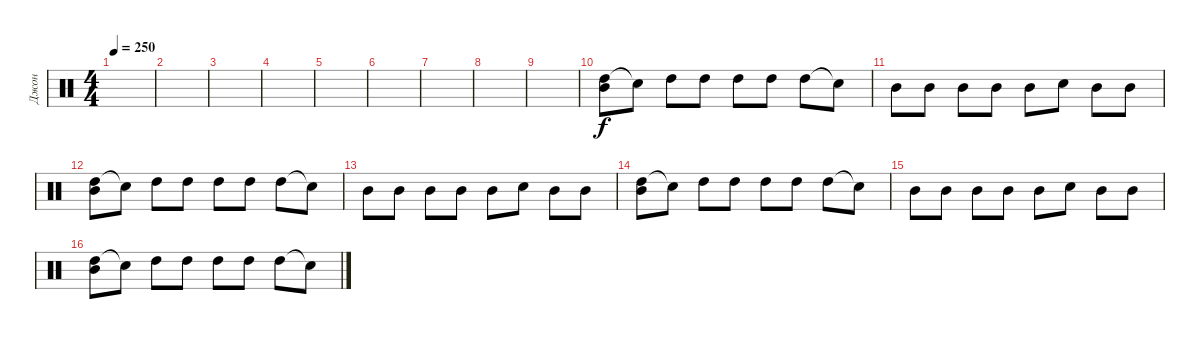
\track ("Джон" "Джон") {instrument percussion}
\staff {score}
\articulation defaults
\ts (4 4)
\tempo 250
\clef neutral
\ks c
|
|
|
|
|
|
|
|
|
("High Tom (hit)" "Mid Tom (hit)").8 "Snare (hit)"{t}.8 "High Tom (hit)".8 "High Tom (hit)".8 "High Tom (hit)".8 "High Tom (hit)".8 "High Tom (hit)".8 "Snare (hit)"{t}.8 |
"Mid Tom (hit)".8 "Mid Tom (hit)".8 "Mid Tom (hit)".8 "Mid Tom (hit)".8 "Mid Tom (hit)".8 "Snare (hit)".8 "Mid Tom (hit)".8 "Mid Tom (hit)".8 |
("High Tom (hit)" "Mid Tom (hit)").8 "Snare (hit)"{t}.8 "High Tom (hit)".8 "High Tom (hit)".8 "High Tom (hit)".8 "High Tom (hit)".8 "High Tom (hit)".8 "Snare (hit)"{t}.8 |
"Mid Tom (hit)".8 "Mid Tom (hit)".8 "Mid Tom (hit)".8 "Mid Tom (hit)".8 "Mid Tom (hit)".8 "Snare (hit)".8 "Mid Tom (hit)".8 "Mid Tom (hit)".8 |
("High Tom (hit)" "Mid Tom (hit)").8 "Snare (hit)"{t}.8 "High Tom (hit)".8 "High Tom (hit)".8 "High Tom (hit)".8 "High Tom (hit)".8 "High Tom (hit)".8 "Snare (hit)"{t}.8 |
"Mid Tom (hit)".8 "Mid Tom (hit)".8 "Mid Tom (hit)".8 "Mid Tom (hit)".8 "Mid Tom (hit)".8 "Snare (hit)".8 "Mid Tom (hit)".8 "Mid Tom (hit)".8 |
("High Tom (hit)" "Mid Tom (hit)").8 "Snare (hit)"{t}.8 "High Tom (hit)".8 "High Tom (hit)".8 "High Tom (hit)".8 "High Tom (hit)".8 "High Tom (hit)".8 "Snare (hit)"{t}.8
